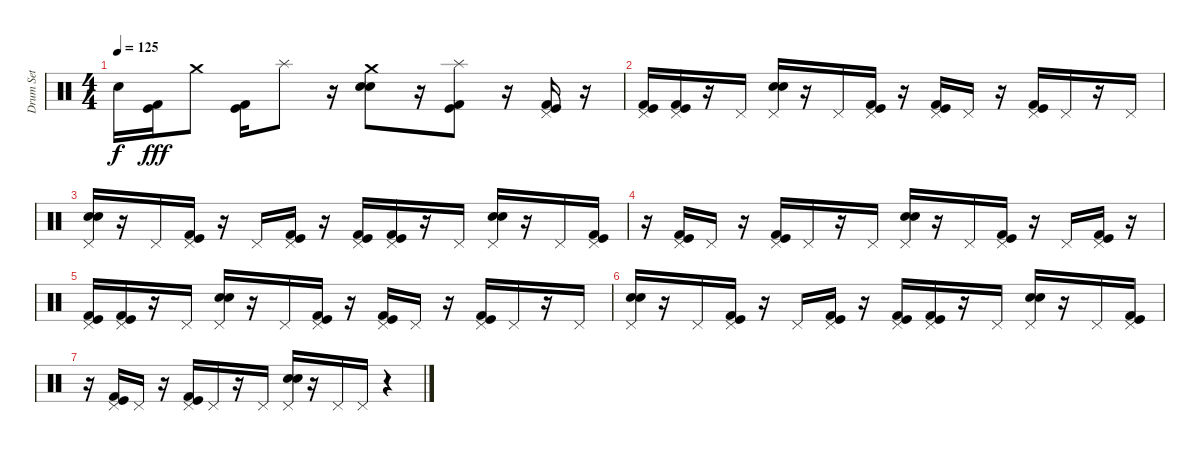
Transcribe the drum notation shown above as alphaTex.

\track ("Drum Set" "Drum Set") {instrument percussion}
\staff {score}
\articulation defaults
\ts (4 4)
\tempo 125
\clef neutral
\ks c "Snare (hit)"{t}.16{dy f}
("Kick (hit)" "Kick (hit) 2").16{dy fff} "Crash medium (hit)".8 ("Kick (hit)" "Kick (hit) 2").16 "Splash (hit)".8 r.16 ("Electric Snare (hit)" "Snare (hit) 2" "Crash medium (hit)").8 r.16 ("Kick (hit)" "Kick (hit) 2" "Splash (hit)").8 r.16 ("Kick (hit) 2" "Kick (hit)" "Pedal Hi-Hat (hit)").16 r.16 |
("Kick (hit)" "Kick (hit) 2" "Pedal Hi-Hat (hit)").16 ("Kick (hit) 2" "Kick (hit)" "Pedal Hi-Hat (hit)").16 r.16 "Pedal Hi-Hat (hit)".16 ("Electric Snare (hit)" "Snare (hit) 2" "Pedal Hi-Hat (hit)").16 r.16 "Pedal Hi-Hat (hit)".16 ("Kick (hit)" "Kick (hit) 2" "Pedal Hi-Hat (hit)").16 r.16 ("Kick (hit)" "Kick (hit) 2" "Pedal Hi-Hat (hit)").16 "Pedal Hi-Hat (hit)".16 r.16 ("Kick (hit)" "Kick (hit) 2" "Pedal Hi-Hat (hit)").16 "Pedal Hi-Hat (hit)".16 r.16 "Pedal Hi-Hat (hit)".16 |
("Electric Snare (hit)" "Snare (hit) 2" "Pedal Hi-Hat (hit)").16 r.16 "Pedal Hi-Hat (hit)".16 ("Kick (hit)" "Kick (hit) 2" "Pedal Hi-Hat (hit)").16 r.16 "Pedal Hi-Hat (hit)".16 ("Pedal Hi-Hat (hit)" "Kick (hit) 2" "Kick (hit)").16 r.16 ("Kick (hit)" "Kick (hit) 2" "Pedal Hi-Hat (hit)").16 ("Kick (hit) 2" "Kick (hit)" "Pedal Hi-Hat (hit)").16 r.16 "Pedal Hi-Hat (hit)".16 ("Electric Snare (hit)" "Snare (hit) 2" "Pedal Hi-Hat (hit)").16 r.16 "Pedal Hi-Hat (hit)".16 ("Kick (hit)" "Kick (hit) 2" "Pedal Hi-Hat (hit)").16 |
r.16 ("Kick (hit)" "Kick (hit) 2" "Pedal Hi-Hat (hit)").16 "Pedal Hi-Hat (hit)".16 r.16 ("Kick (hit)" "Kick (hit) 2" "Pedal Hi-Hat (hit)").16 "Pedal Hi-Hat (hit)".16 r.16 "Pedal Hi-Hat (hit)".16 ("Electric Snare (hit)" "Snare (hit) 2" "Pedal Hi-Hat (hit)").16 r.16 "Pedal Hi-Hat (hit)".16 ("Kick (hit)" "Kick (hit) 2" "Pedal Hi-Hat (hit)").16 r.16 "Pedal Hi-Hat (hit)".16 ("Pedal Hi-Hat (hit)" "Kick (hit) 2" "Kick (hit)").16 r.16 |
("Kick (hit)" "Kick (hit) 2" "Pedal Hi-Hat (hit)").16 ("Kick (hit) 2" "Kick (hit)" "Pedal Hi-Hat (hit)").16 r.16 "Pedal Hi-Hat (hit)".16 ("Electric Snare (hit)" "Snare (hit) 2" "Pedal Hi-Hat (hit)").16 r.16 "Pedal Hi-Hat (hit)".16 ("Kick (hit)" "Kick (hit) 2" "Pedal Hi-Hat (hit)").16 r.16 ("Kick (hit)" "Kick (hit) 2" "Pedal Hi-Hat (hit)").16 "Pedal Hi-Hat (hit)".16 r.16 ("Kick (hit)" "Kick (hit) 2" "Pedal Hi-Hat (hit)").16 "Pedal Hi-Hat (hit)".16 r.16 "Pedal Hi-Hat (hit)".16 |
("Electric Snare (hit)" "Snare (hit) 2" "Pedal Hi-Hat (hit)").16 r.16 "Pedal Hi-Hat (hit)".16 ("Kick (hit)" "Kick (hit) 2" "Pedal Hi-Hat (hit)").16 r.16 "Pedal Hi-Hat (hit)".16 ("Pedal Hi-Hat (hit)" "Kick (hit) 2" "Kick (hit)").16 r.16 ("Kick (hit)" "Kick (hit) 2" "Pedal Hi-Hat (hit)").16 ("Kick (hit) 2" "Kick (hit)" "Pedal Hi-Hat (hit)").16 r.16 "Pedal Hi-Hat (hit)".16 ("Electric Snare (hit)" "Snare (hit) 2" "Pedal Hi-Hat (hit)").16 r.16 "Pedal Hi-Hat (hit)".16 ("Kick (hit)" "Kick (hit) 2" "Pedal Hi-Hat (hit)").16 |
r.16 ("Kick (hit)" "Kick (hit) 2" "Pedal Hi-Hat (hit)").16 "Pedal Hi-Hat (hit)".16 r.16 ("Kick (hit)" "Kick (hit) 2" "Pedal Hi-Hat (hit)").16 "Pedal Hi-Hat (hit)".16 r.16 "Pedal Hi-Hat (hit)".16 ("Electric Snare (hit)" "Snare (hit) 2" "Pedal Hi-Hat (hit)").16 r.16 "Pedal Hi-Hat (hit)".16 "Pedal Hi-Hat (hit)".16 r.4
